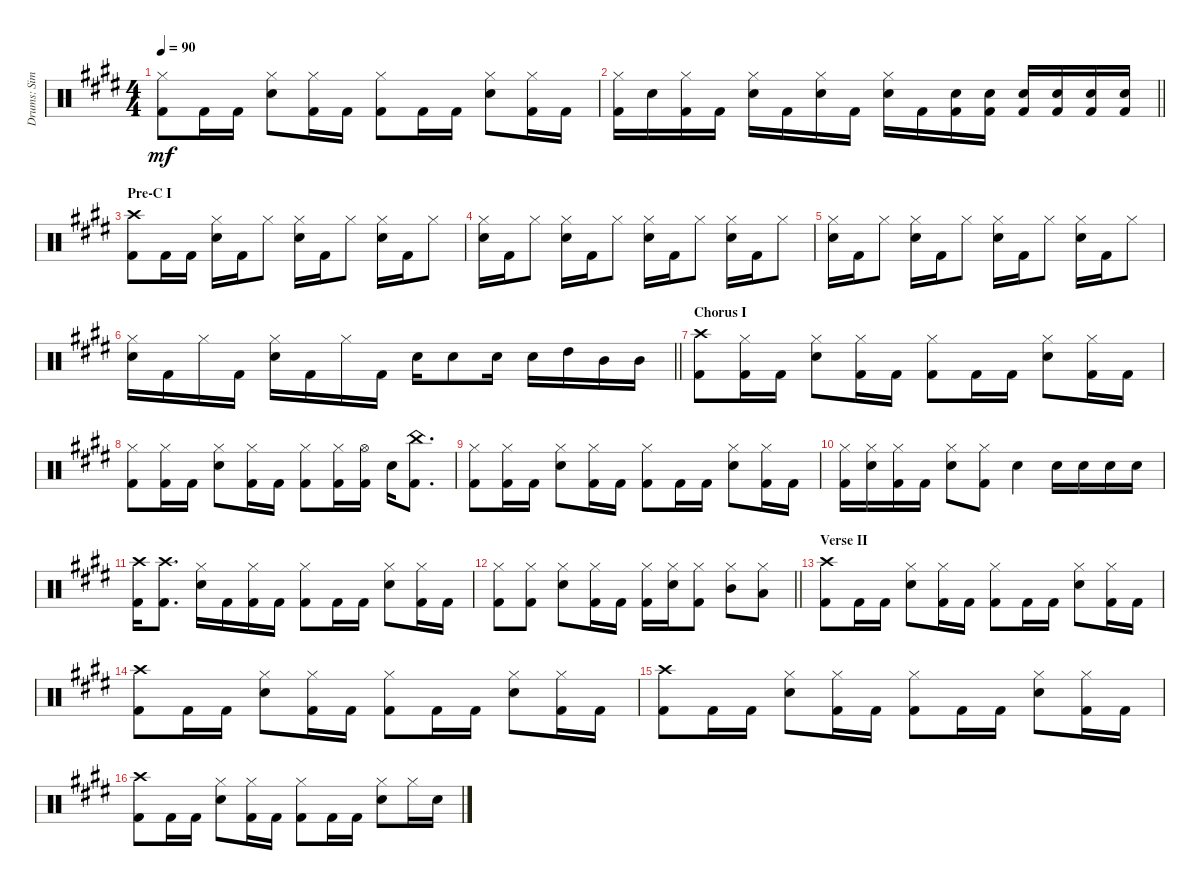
\track ("Drums: Simon" "Drums: Sim") {instrument percussion}
\staff {score}
\articulation defaults
\ts (4 4)
\tempo 90
\clef neutral
\ks e
("Hi-Hat (closed)" "Kick (hit) 2").8{dy mf} "Kick (hit) 2".16 "Kick (hit) 2".16 ("Hi-Hat (closed)" "Electric Snare (hit)").8 ("Hi-Hat (closed)" "Kick (hit) 2").16 "Kick (hit) 2".16 ("Hi-Hat (closed)" "Kick (hit) 2").8 "Kick (hit) 2".16 "Kick (hit) 2".16 ("Hi-Hat (closed)" "Electric Snare (hit)").8 ("Hi-Hat (closed)" "Kick (hit) 2").16 "Kick (hit) 2".16 |
\barLineRight lightlight
("Hi-Hat (closed)" "Kick (hit) 2").16 "Electric Snare (hit)".16 ("Hi-Hat (closed)" "Kick (hit) 2").16 "Kick (hit) 2".16 ("Hi-Hat (closed)" "Electric Snare (hit)").16 "Kick (hit) 2".16 ("Hi-Hat (closed)" "Electric Snare (hit)").16 "Kick (hit) 2".16 ("Hi-Hat (closed)" "Electric Snare (hit)").16 "Kick (hit) 2".16 ("Electric Snare (hit)" "Kick (hit) 2").16 ("Electric Snare (hit)" "Kick (hit) 2").16 ("Electric Snare (hit)" "Kick (hit) 2").16 ("Electric Snare (hit)" "Kick (hit) 2").16 ("Electric Snare (hit)" "Kick (hit) 2").16 ("Electric Snare (hit)" "Kick (hit) 2").16 |
\section ("" "Pre-C I")
("Crash high (hit)" "Kick (hit) 2").8 "Kick (hit) 2".16 "Kick (hit) 2".16 ("Hi-Hat (closed)" "Electric Snare (hit)").16 "Kick (hit) 2".16 "Hi-Hat (closed)".8 ("Hi-Hat (closed)" "Electric Snare (hit)").16 "Kick (hit) 2".16 "Hi-Hat (closed)".8 ("Hi-Hat (closed)" "Electric Snare (hit)").16 "Kick (hit) 2".16 "Hi-Hat (closed)".8 |
("Hi-Hat (closed)" "Electric Snare (hit)").16 "Kick (hit) 2".16 "Hi-Hat (closed)".8 ("Hi-Hat (closed)" "Electric Snare (hit)").16 "Kick (hit) 2".16 "Hi-Hat (closed)".8 ("Hi-Hat (closed)" "Electric Snare (hit)").16 "Kick (hit) 2".16 "Hi-Hat (closed)".8 ("Hi-Hat (closed)" "Electric Snare (hit)").16 "Kick (hit) 2".16 "Hi-Hat (closed)".8 |
("Hi-Hat (closed)" "Electric Snare (hit)").16 "Kick (hit) 2".16 "Hi-Hat (closed)".8 ("Hi-Hat (closed)" "Electric Snare (hit)").16 "Kick (hit) 2".16 "Hi-Hat (closed)".8 ("Hi-Hat (closed)" "Electric Snare (hit)").16 "Kick (hit) 2".16 "Hi-Hat (closed)".8 ("Hi-Hat (closed)" "Electric Snare (hit)").16 "Kick (hit) 2".16 "Hi-Hat (closed)".8 |
\barLineRight lightlight
("Hi-Hat (closed)" "Electric Snare (hit)").16 "Kick (hit) 2".16 "Hi-Hat (closed)".16 "Kick (hit) 2".16 ("Hi-Hat (closed)" "Electric Snare (hit)").16 "Kick (hit) 2".16 "Hi-Hat (closed)".16 "Kick (hit) 2".16 "Electric Snare (hit)".16 "Electric Snare (hit)".8 "Electric Snare (hit)".16 "Electric Snare (hit)".16 "High Tom (hit)".16 "Mid Tom (hit)".16 "Mid Tom (hit)".16 |
\section ("" "Chorus I")
("Crash high (hit)" "Kick (hit) 2").8 ("Hi-Hat (closed)" "Kick (hit) 2").16 "Kick (hit) 2".16 ("Hi-Hat (closed)" "Electric Snare (hit)").8 ("Hi-Hat (closed)" "Kick (hit) 2").16 "Kick (hit) 2".16 ("Hi-Hat (closed)" "Kick (hit) 2").8 "Kick (hit) 2".16 "Kick (hit) 2".16 ("Hi-Hat (closed)" "Electric Snare (hit)").8 ("Hi-Hat (closed)" "Kick (hit) 2").16 "Kick (hit) 2".16 |
("Hi-Hat (closed)" "Kick (hit) 2").8 ("Hi-Hat (closed)" "Kick (hit) 2").16 "Kick (hit) 2".16 ("Hi-Hat (closed)" "Electric Snare (hit)").8 ("Hi-Hat (closed)" "Kick (hit) 2").16 "Kick (hit) 2".16 ("Hi-Hat (closed)" "Kick (hit) 2").8 ("Hi-Hat (closed)" "Kick (hit) 2").16 ("Hi-Hat (open)" "Kick (hit) 2").16 "Electric Snare (hit)".16 ("China (hit)" "Kick (hit) 2").8{d} |
("Hi-Hat (closed)" "Kick (hit) 2").8 ("Hi-Hat (closed)" "Kick (hit) 2").16 "Kick (hit) 2".16 ("Hi-Hat (closed)" "Electric Snare (hit)").8 ("Hi-Hat (closed)" "Kick (hit) 2").16 "Kick (hit) 2".16 ("Hi-Hat (closed)" "Kick (hit) 2").8 "Kick (hit) 2".16 "Kick (hit) 2".16 ("Hi-Hat (closed)" "Electric Snare (hit)").8 ("Hi-Hat (closed)" "Kick (hit) 2").16 "Kick (hit) 2".16 |
("Hi-Hat (closed)" "Kick (hit) 2").16 ("Hi-Hat (closed)" "Electric Snare (hit)").16 ("Hi-Hat (closed)" "Kick (hit) 2").16 "Kick (hit) 2".16 ("Hi-Hat (closed)" "Electric Snare (hit)").8 ("Hi-Hat (closed)" "Kick (hit) 2").8 "Electric Snare (hit)".4 "Electric Snare (hit)".16 "Electric Snare (hit)".16 "Electric Snare (hit)".16 "Electric Snare (hit)".16 |
("Crash high (hit)" "Kick (hit) 2").16 ("Crash high (hit)" "Kick (hit) 2").8{d} ("Hi-Hat (closed)" "Electric Snare (hit)").16 "Kick (hit) 2".16 ("Hi-Hat (closed)" "Kick (hit) 2").16 "Kick (hit) 2".16 ("Hi-Hat (closed)" "Kick (hit) 2").8 "Kick (hit) 2".16 "Kick (hit) 2".16 ("Hi-Hat (closed)" "Electric Snare (hit)").8 ("Hi-Hat (closed)" "Kick (hit) 2").16 "Kick (hit) 2".16 |
\barLineRight lightlight
("Hi-Hat (closed)" "Kick (hit) 2").8 ("Hi-Hat (closed)" "Kick (hit) 2").8 ("Hi-Hat (closed)" "Electric Snare (hit)").8 ("Hi-Hat (closed)" "Kick (hit) 2").16 "Kick (hit) 2".16 ("Hi-Hat (closed)" "Kick (hit) 2").16 ("Hi-Hat (closed)" "Electric Snare (hit)").16 ("Hi-Hat (closed)" "Kick (hit) 2").8 ("Hi-Hat (closed)" "Mid Tom (hit)").8 ("Hi-Hat (closed)" "Low Tom (hit)").8 |
\section ("" "Verse II")
("Crash high (hit)" "Kick (hit) 2").8 "Kick (hit) 2".16 "Kick (hit) 2".16 ("Hi-Hat (closed)" "Electric Snare (hit)").8 ("Hi-Hat (closed)" "Kick (hit) 2").16 "Kick (hit) 2".16 ("Hi-Hat (closed)" "Kick (hit) 2").8 "Kick (hit) 2".16 "Kick (hit) 2".16 ("Hi-Hat (closed)" "Electric Snare (hit)").8 ("Hi-Hat (closed)" "Kick (hit) 2").16 "Kick (hit) 2".16 |
("Crash high (hit)" "Kick (hit) 2").8 "Kick (hit) 2".16 "Kick (hit) 2".16 ("Hi-Hat (closed)" "Electric Snare (hit)").8 ("Hi-Hat (closed)" "Kick (hit) 2").16 "Kick (hit) 2".16 ("Hi-Hat (closed)" "Kick (hit) 2").8 "Kick (hit) 2".16 "Kick (hit) 2".16 ("Hi-Hat (closed)" "Electric Snare (hit)").8 ("Hi-Hat (closed)" "Kick (hit) 2").16 "Kick (hit) 2".16 |
("Crash high (hit)" "Kick (hit) 2").8 "Kick (hit) 2".16 "Kick (hit) 2".16 ("Hi-Hat (closed)" "Electric Snare (hit)").8 ("Hi-Hat (closed)" "Kick (hit) 2").16 "Kick (hit) 2".16 ("Hi-Hat (closed)" "Kick (hit) 2").8 "Kick (hit) 2".16 "Kick (hit) 2".16 ("Hi-Hat (closed)" "Electric Snare (hit)").8 ("Hi-Hat (closed)" "Kick (hit) 2").16 "Kick (hit) 2".16 |
("Crash high (hit)" "Kick (hit) 2").8 "Kick (hit) 2".16 "Kick (hit) 2".16 ("Hi-Hat (closed)" "Electric Snare (hit)").8 ("Hi-Hat (closed)" "Kick (hit) 2").16 "Kick (hit) 2".16 ("Hi-Hat (closed)" "Kick (hit) 2").8 "Kick (hit) 2".16 "Kick (hit) 2".16 ("Hi-Hat (closed)" "Electric Snare (hit)").8 "Hi-Hat (closed)".16 "Electric Snare (hit)".16
